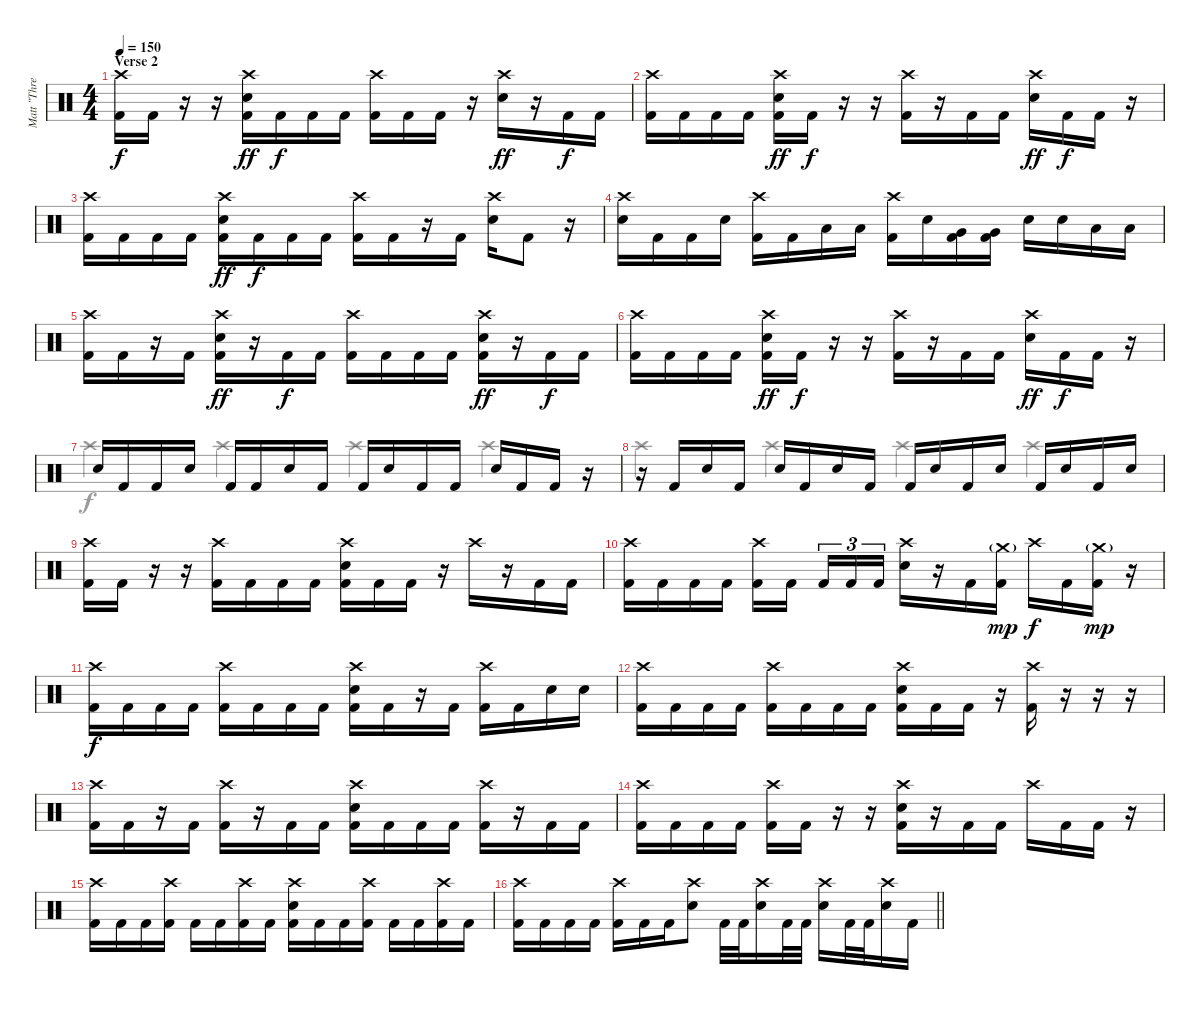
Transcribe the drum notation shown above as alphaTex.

\track ("Matt \"Three Cymbals/Swing\" Halpern" "Matt \"Thre") {instrument percussion}
\staff {score}
\articulation defaults
\voice
\ts (4 4)
\section ("" "Verse 2")
\tempo 150
\clef neutral
\ks c
("Crash high (hit)" "Kick (hit) 2").16{dy f} "Kick (hit) 2".16 r.16 r.16 ("Crash high (hit)" "Snare (hit) 2" "Kick (hit) 2").16{dy ff} "Kick (hit) 2".16{dy f} "Kick (hit) 2".16 "Kick (hit) 2".16 ("Crash high (hit)" "Kick (hit) 2").16 "Kick (hit) 2".16 "Kick (hit) 2".16 r.16 ("Crash high (hit)" "Snare (hit) 2").16{dy ff} r.16 "Kick (hit) 2".16{dy f} "Kick (hit) 2".16 |
("Crash high (hit)" "Kick (hit) 2").16 "Kick (hit) 2".16 "Kick (hit) 2".16 "Kick (hit) 2".16 ("Crash high (hit)" "Snare (hit) 2" "Kick (hit) 2").16{dy ff} "Kick (hit) 2".16{dy f} r.16 r.16 ("Crash high (hit)" "Kick (hit) 2").16 r.16 "Kick (hit) 2".16 "Kick (hit) 2".16 ("Crash high (hit)" "Snare (hit) 2").16{dy ff} "Kick (hit) 2".16{dy f} "Kick (hit) 2".16 r.16 |
("Crash high (hit)" "Kick (hit) 2").16 "Kick (hit) 2".16 "Kick (hit) 2".16 "Kick (hit) 2".16 ("Crash high (hit)" "Snare (hit) 2" "Kick (hit) 2").16{dy ff} "Kick (hit) 2".16{dy f} "Kick (hit) 2".16 "Kick (hit) 2".16 ("Crash high (hit)" "Kick (hit) 2").16 "Kick (hit) 2".16 r.16 "Kick (hit) 2".16 ("Crash high (hit)" "Snare (hit) 2").16 "Kick (hit) 2".8 r.16 |
("Crash high (hit)" "Snare (hit) 2").16 "Kick (hit) 2".16 "Kick (hit) 2".16 "Snare (hit) 2".16 ("Crash high (hit)" "Kick (hit) 2").16 "Kick (hit) 2".16 "Low Floor Tom (hit)".16 "Low Floor Tom (hit)".16 ("Crash high (hit)" "Kick (hit) 2").16 "Snare (hit) 2".16 ("Very Low Tom (hit)" "Kick (hit) 2").16 ("Very Low Tom (hit)" "Kick (hit) 2").16 "Snare (hit) 2".16 "Snare (hit) 2".16 "Low Floor Tom (hit)".16 "Low Floor Tom (hit)".16 |
("Crash high (hit)" "Kick (hit) 2").16 "Kick (hit) 2".16 r.16 "Kick (hit) 2".16 ("Crash high (hit)" "Snare (hit) 2" "Kick (hit) 2").16{dy ff} r.16 "Kick (hit) 2".16{dy f} "Kick (hit) 2".16 ("Crash high (hit)" "Kick (hit) 2").16 "Kick (hit) 2".16 "Kick (hit) 2".16 "Kick (hit) 2".16 ("Crash high (hit)" "Snare (hit) 2" "Kick (hit) 2").16{dy ff} r.16 "Kick (hit) 2".16{dy f} "Kick (hit) 2".16 |
("Crash high (hit)" "Kick (hit) 2").16 "Kick (hit) 2".16 "Kick (hit) 2".16 "Kick (hit) 2".16 ("Crash high (hit)" "Snare (hit) 2" "Kick (hit) 2").16{dy ff} "Kick (hit) 2".16{dy f} r.16 r.16 ("Crash high (hit)" "Kick (hit) 2").16 r.16 "Kick (hit) 2".16 "Kick (hit) 2".16 ("Crash high (hit)" "Snare (hit) 2").16{dy ff} "Kick (hit) 2".16{dy f} "Kick (hit) 2".16 r.16 |
"Snare (hit) 2".16 "Kick (hit) 2".16 "Kick (hit) 2".16 "Snare (hit) 2".16 "Kick (hit) 2".16 "Kick (hit) 2".16 "Snare (hit) 2".16 "Kick (hit) 2".16 "Kick (hit) 2".16 "Snare (hit) 2".16 "Kick (hit) 2".16 "Kick (hit) 2".16 "Snare (hit) 2".16 "Kick (hit) 2".16 "Kick (hit) 2".16 r.16 |
r.16 "Kick (hit) 2".16 "Snare (hit) 2".16 "Kick (hit) 2".16 "Snare (hit) 2".16 "Kick (hit) 2".16 "Snare (hit) 2".16 "Kick (hit) 2".16 "Kick (hit) 2".16 "Snare (hit) 2".16 "Kick (hit) 2".16 "Snare (hit) 2".16 "Kick (hit) 2".16 "Snare (hit) 2".16 "Kick (hit) 2".16 "Snare (hit) 2".16 |
("Crash high (hit)" "Kick (hit) 2").16 "Kick (hit) 2".16 r.16 r.16 ("Crash high (hit)" "Kick (hit) 2").16 "Kick (hit) 2".16 "Kick (hit) 2".16 "Kick (hit) 2".16 ("Crash high (hit)" "Snare (hit) 2" "Kick (hit) 2").16 "Kick (hit) 2".16 "Kick (hit) 2".16 r.16 "Crash high (hit)".16 r.16 "Kick (hit) 2".16 "Kick (hit) 2".16 |
("Crash high (hit)" "Kick (hit) 2").16 "Kick (hit) 2".16 "Kick (hit) 2".16 "Kick (hit) 2".16 ("Crash high (hit)" "Kick (hit) 2").16 "Kick (hit) 2".16{beam splitsecondary} "Kick (hit) 2".16{tu (3 2)} "Kick (hit) 2".16{tu (3 2)} "Kick (hit) 2".16{tu (3 2)} ("Crash high (hit)" "Snare (hit) 2").16 r.16 "Kick (hit) 2".16 ("Crash medium (hit)"{g} "Kick (hit) 2").16{dy mp} "Crash high (hit)".16{dy f} "Kick (hit) 2".16 ("Crash medium (hit)"{g} "Kick (hit) 2").16{dy mp} r.16 |
("Crash high (hit)" "Kick (hit) 2").16{dy f} "Kick (hit) 2".16 "Kick (hit) 2".16 "Kick (hit) 2".16 ("Crash high (hit)" "Kick (hit) 2").16 "Kick (hit) 2".16 "Kick (hit) 2".16 "Kick (hit) 2".16 ("Crash high (hit)" "Snare (hit) 2" "Kick (hit) 2").16 "Kick (hit) 2".16 r.16 "Kick (hit) 2".16 ("Crash high (hit)" "Kick (hit) 2").16 "Kick (hit) 2".16 "Snare (hit) 2".16 "Snare (hit) 2".16 |
("Crash high (hit)" "Kick (hit) 2").16 "Kick (hit) 2".16 "Kick (hit) 2".16 "Kick (hit) 2".16 ("Crash high (hit)" "Kick (hit) 2").16 "Kick (hit) 2".16 "Kick (hit) 2".16 "Kick (hit) 2".16 ("Crash high (hit)" "Snare (hit) 2" "Kick (hit) 2").16 "Kick (hit) 2".16 "Kick (hit) 2".16 r.16 ("Crash high (hit)" "Kick (hit) 2").16 r.16 r.16 r.16 |
("Crash high (hit)" "Kick (hit) 2").16 "Kick (hit) 2".16 r.16 "Kick (hit) 2".16 ("Crash high (hit)" "Kick (hit) 2").16 r.16 "Kick (hit) 2".16 "Kick (hit) 2".16 ("Crash high (hit)" "Snare (hit) 2" "Kick (hit) 2").16 "Kick (hit) 2".16 "Kick (hit) 2".16 "Kick (hit) 2".16 ("Crash high (hit)" "Kick (hit) 2").16 r.16 "Kick (hit) 2".16 "Kick (hit) 2".16 |
("Crash high (hit)" "Kick (hit) 2").16 "Kick (hit) 2".16 "Kick (hit) 2".16 "Kick (hit) 2".16 ("Crash high (hit)" "Kick (hit) 2").16 "Kick (hit) 2".16 r.16 r.16 ("Crash high (hit)" "Snare (hit) 2" "Kick (hit) 2").16 r.16 "Kick (hit) 2".16 "Kick (hit) 2".16 "Crash high (hit)".16 "Kick (hit) 2".16 "Kick (hit) 2".16 r.16 |
("Crash high (hit)" "Kick (hit) 2").16 "Kick (hit) 2".16 "Kick (hit) 2".16 ("Crash high (hit)" "Kick (hit) 2").16 "Kick (hit) 2".16 "Kick (hit) 2".16 ("Crash high (hit)" "Kick (hit) 2").16 "Kick (hit) 2".16 ("Crash high (hit)" "Snare (hit) 2" "Kick (hit) 2").16 "Kick (hit) 2".16 "Kick (hit) 2".16 ("Crash high (hit)" "Kick (hit) 2").16 "Kick (hit) 2".16 "Kick (hit) 2".16 ("Crash high (hit)" "Kick (hit) 2").16 "Kick (hit) 2".16 |
\barLineRight lightlight
("Crash high (hit)" "Kick (hit) 2").16 "Kick (hit) 2".16 "Kick (hit) 2".16 "Kick (hit) 2".16 ("Crash high (hit)" "Kick (hit) 2").16 "Kick (hit) 2".16 "Kick (hit) 2".16 ("Crash high (hit)" "Snare (hit) 2").8 "Kick (hit) 2".32 "Kick (hit) 2".32 ("Crash high (hit)" "Snare (hit) 2").16 "Kick (hit) 2".32 "Kick (hit) 2".32 ("Crash high (hit)" "Snare (hit) 2").16 "Kick (hit) 2".32 "Kick (hit) 2".32 ("Crash high (hit)" "Snare (hit) 2").16 "Kick (hit) 2".16
\voice
\clef neutral
\ottava regular
\simile none
\ks c
|
|
|
|
|
|
"Crash high (hit)".4 "Crash high (hit)".4 "Crash high (hit)".4 "Crash high (hit)".4 |
"Crash high (hit)".4 "Crash high (hit)".4 "Crash high (hit)".4 "Crash high (hit)".4 |
|
|
|
|
|
|
|
\barLineRight lightlight
